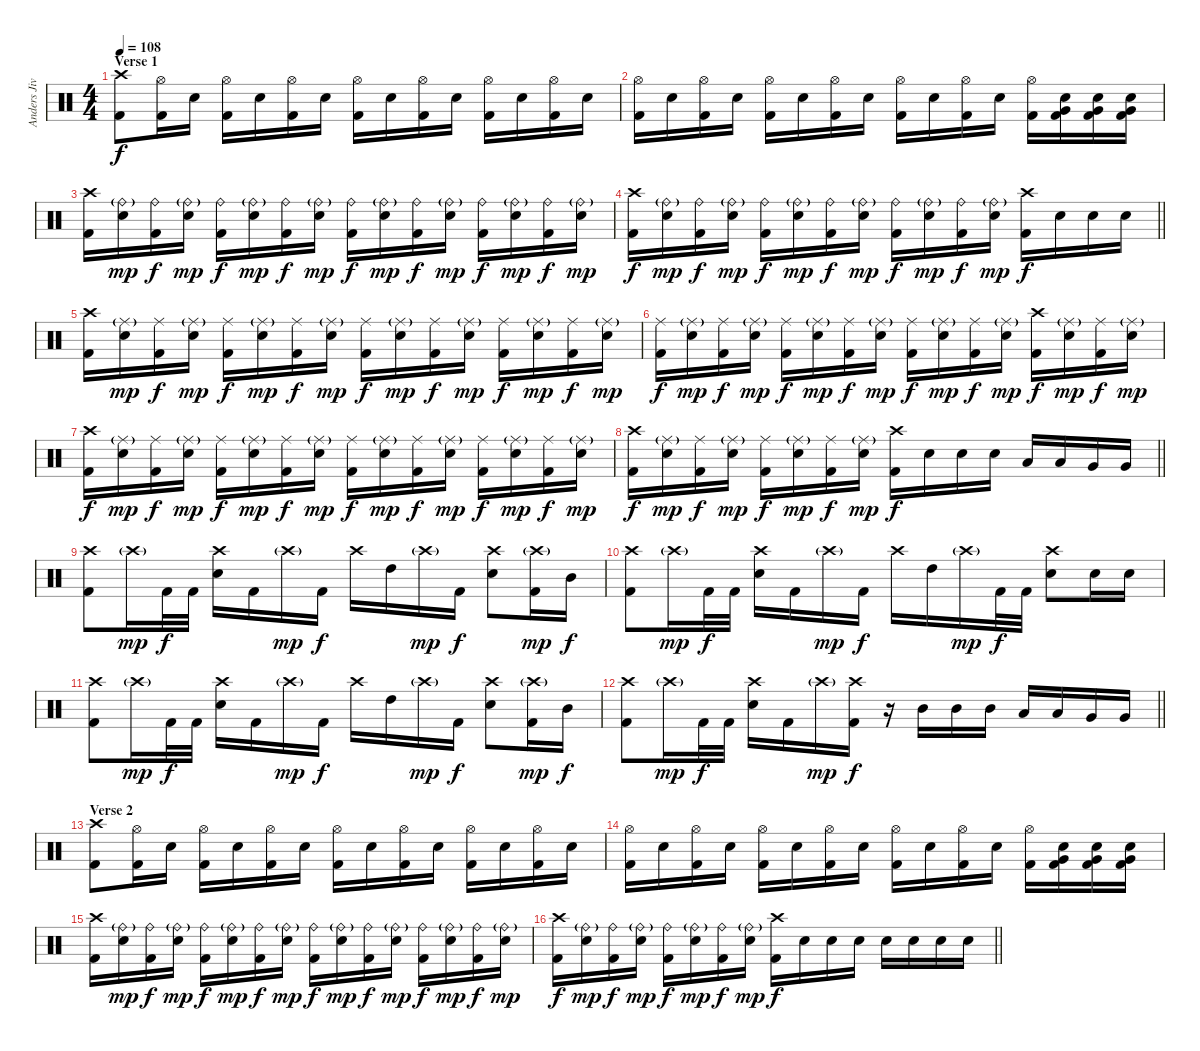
\track ("Anders Jivarp" "Anders Jiv") {instrument percussion}
\staff {score}
\articulation defaults
\ts (4 4)
\section ("" "Verse 1")
\tempo 108
\clef neutral
\ks c
("Crash high (hit)" "Kick (hit) 2").8{dy f} ("Hi-Hat (open)" "Kick (hit) 2").16 "Snare (hit) 2".16 ("Hi-Hat (open)" "Kick (hit) 2").16 "Snare (hit) 2".16 ("Hi-Hat (open)" "Kick (hit) 2").16 "Snare (hit) 2".16 ("Hi-Hat (open)" "Kick (hit) 2").16 "Snare (hit) 2".16 ("Hi-Hat (open)" "Kick (hit) 2").16 "Snare (hit) 2".16 ("Hi-Hat (open)" "Kick (hit) 2").16 "Snare (hit) 2".16 ("Hi-Hat (open)" "Kick (hit) 2").16 "Snare (hit) 2".16 |
("Hi-Hat (open)" "Kick (hit) 2").16 "Snare (hit) 2".16 ("Hi-Hat (open)" "Kick (hit) 2").16 "Snare (hit) 2".16 ("Hi-Hat (open)" "Kick (hit) 2").16 "Snare (hit) 2".16 ("Hi-Hat (open)" "Kick (hit) 2").16 "Snare (hit) 2".16 ("Hi-Hat (open)" "Kick (hit) 2").16 "Snare (hit) 2".16 ("Hi-Hat (open)" "Kick (hit) 2").16 "Snare (hit) 2".16 ("Hi-Hat (open)" "Kick (hit) 2").16 ("Snare (hit) 2" "Very Low Tom (hit)" "Kick (hit) 2").16 ("Snare (hit) 2" "Very Low Tom (hit)" "Kick (hit) 2").16 ("Snare (hit) 2" "Very Low Tom (hit)" "Kick (hit) 2").16 |
("Crash high (hit)" "Kick (hit) 2").16 ("Ride (bell)"{g} "Snare (hit) 2").16{dy mp} ("Ride (bell)" "Kick (hit) 2").16{dy f} ("Ride (bell)"{g} "Snare (hit) 2").16{dy mp} ("Ride (bell)" "Kick (hit) 2").16{dy f} ("Ride (bell)"{g} "Snare (hit) 2").16{dy mp} ("Ride (bell)" "Kick (hit) 2").16{dy f} ("Ride (bell)"{g} "Snare (hit) 2").16{dy mp} ("Ride (bell)" "Kick (hit) 2").16{dy f} ("Ride (bell)"{g} "Snare (hit) 2").16{dy mp} ("Ride (bell)" "Kick (hit) 2").16{dy f} ("Ride (bell)"{g} "Snare (hit) 2").16{dy mp} ("Ride (bell)" "Kick (hit) 2").16{dy f} ("Ride (bell)"{g} "Snare (hit) 2").16{dy mp} ("Ride (bell)" "Kick (hit) 2").16{dy f} ("Ride (bell)"{g} "Snare (hit) 2").16{dy mp} |
\barLineRight lightlight
("Crash high (hit)" "Kick (hit) 2").16{dy f} ("Ride (bell)"{g} "Snare (hit) 2").16{dy mp} ("Ride (bell)" "Kick (hit) 2").16{dy f} ("Ride (bell)"{g} "Snare (hit) 2").16{dy mp} ("Ride (bell)" "Kick (hit) 2").16{dy f} ("Ride (bell)"{g} "Snare (hit) 2").16{dy mp} ("Ride (bell)" "Kick (hit) 2").16{dy f} ("Ride (bell)"{g} "Snare (hit) 2").16{dy mp} ("Ride (bell)" "Kick (hit) 2").16{dy f} ("Ride (bell)"{g} "Snare (hit) 2").16{dy mp} ("Ride (bell)" "Kick (hit) 2").16{dy f} ("Ride (bell)"{g} "Snare (hit) 2").16{dy mp} ("Crash high (hit)" "Kick (hit) 2").16{dy f} "Snare (hit) 2".16 "Snare (hit) 2".16 "Snare (hit) 2".16 |
\section ("" "")
("Crash high (hit)" "Kick (hit) 2").16 ("Ride (middle)"{g} "Snare (hit) 2").16{dy mp} ("Ride (middle)" "Kick (hit) 2").16{dy f} ("Ride (middle)"{g} "Snare (hit) 2").16{dy mp} ("Ride (middle)" "Kick (hit) 2").16{dy f} ("Ride (middle)"{g} "Snare (hit) 2").16{dy mp} ("Ride (middle)" "Kick (hit) 2").16{dy f} ("Ride (middle)"{g} "Snare (hit) 2").16{dy mp} ("Ride (middle)" "Kick (hit) 2").16{dy f} ("Ride (middle)"{g} "Snare (hit) 2").16{dy mp} ("Ride (middle)" "Kick (hit) 2").16{dy f} ("Ride (middle)"{g} "Snare (hit) 2").16{dy mp} ("Ride (middle)" "Kick (hit) 2").16{dy f} ("Ride (middle)"{g} "Snare (hit) 2").16{dy mp} ("Ride (middle)" "Kick (hit) 2").16{dy f} ("Ride (middle)"{g} "Snare (hit) 2").16{dy mp} |
("Ride (middle)" "Kick (hit) 2").16{dy f} ("Ride (middle)"{g} "Snare (hit) 2").16{dy mp} ("Ride (middle)" "Kick (hit) 2").16{dy f} ("Ride (middle)"{g} "Snare (hit) 2").16{dy mp} ("Ride (middle)" "Kick (hit) 2").16{dy f} ("Ride (middle)"{g} "Snare (hit) 2").16{dy mp} ("Ride (middle)" "Kick (hit) 2").16{dy f} ("Ride (middle)"{g} "Snare (hit) 2").16{dy mp} ("Ride (middle)" "Kick (hit) 2").16{dy f} ("Ride (middle)"{g} "Snare (hit) 2").16{dy mp} ("Ride (middle)" "Kick (hit) 2").16{dy f} ("Ride (middle)"{g} "Snare (hit) 2").16{dy mp} ("Crash high (hit)" "Kick (hit) 2").16{dy f} ("Ride (middle)"{g} "Snare (hit) 2").16{dy mp} ("Ride (middle)" "Kick (hit) 2").16{dy f} ("Ride (middle)"{g} "Snare (hit) 2").16{dy mp} |
("Crash high (hit)" "Kick (hit) 2").16{dy f} ("Ride (middle)"{g} "Snare (hit) 2").16{dy mp} ("Ride (middle)" "Kick (hit) 2").16{dy f} ("Ride (middle)"{g} "Snare (hit) 2").16{dy mp} ("Ride (middle)" "Kick (hit) 2").16{dy f} ("Ride (middle)"{g} "Snare (hit) 2").16{dy mp} ("Ride (middle)" "Kick (hit) 2").16{dy f} ("Ride (middle)"{g} "Snare (hit) 2").16{dy mp} ("Ride (middle)" "Kick (hit) 2").16{dy f} ("Ride (middle)"{g} "Snare (hit) 2").16{dy mp} ("Ride (middle)" "Kick (hit) 2").16{dy f} ("Ride (middle)"{g} "Snare (hit) 2").16{dy mp} ("Ride (middle)" "Kick (hit) 2").16{dy f} ("Ride (middle)"{g} "Snare (hit) 2").16{dy mp} ("Ride (middle)" "Kick (hit) 2").16{dy f} ("Ride (middle)"{g} "Snare (hit) 2").16{dy mp} |
\barLineRight lightlight
("Crash high (hit)" "Kick (hit) 2").16{dy f} ("Ride (middle)"{g} "Snare (hit) 2").16{dy mp} ("Ride (middle)" "Kick (hit) 2").16{dy f} ("Ride (middle)"{g} "Snare (hit) 2").16{dy mp} ("Ride (middle)" "Kick (hit) 2").16{dy f} ("Ride (middle)"{g} "Snare (hit) 2").16{dy mp} ("Ride (middle)" "Kick (hit) 2").16{dy f} ("Ride (middle)"{g} "Snare (hit) 2").16{dy mp} ("Crash high (hit)" "Kick (hit) 2").16{dy f} "Snare (hit) 2".16 "Snare (hit) 2".16 "Snare (hit) 2".16 "Low Tom (hit)".16 "Low Tom (hit)".16 "Very Low Tom (hit)".16 "Very Low Tom (hit)".16 |
\section ("" "")
("Crash high (hit)" "Kick (hit) 2").8 "Crash high (hit)"{g}.16{dy mp} "Kick (hit) 2".32{dy f} "Kick (hit) 2".32 ("Crash high (hit)" "Snare (hit) 2").16 "Kick (hit) 2".16 "Crash high (hit)"{g}.16{dy mp} "Kick (hit) 2".16{dy f} "Crash high (hit)".16 "High Tom (hit)".16 "Crash high (hit)"{g}.16{dy mp} "Kick (hit) 2".16{dy f} ("Crash high (hit)" "Snare (hit) 2").8 ("Crash high (hit)"{g} "Kick (hit) 2").16{dy mp} "Mid Tom (hit)".16{dy f} |
("Crash high (hit)" "Kick (hit) 2").8 "Crash high (hit)"{g}.16{dy mp} "Kick (hit) 2".32{dy f} "Kick (hit) 2".32 ("Crash high (hit)" "Snare (hit) 2").16 "Kick (hit) 2".16 "Crash high (hit)"{g}.16{dy mp} "Kick (hit) 2".16{dy f} "Crash high (hit)".16 "High Tom (hit)".16 "Crash high (hit)"{g}.16{dy mp} "Kick (hit) 2".32{dy f} "Kick (hit) 2".32 ("Crash high (hit)" "Snare (hit) 2").8 "Snare (hit) 2".16 "Snare (hit) 2".16 |
("Crash high (hit)" "Kick (hit) 2").8 "Crash high (hit)"{g}.16{dy mp} "Kick (hit) 2".32{dy f} "Kick (hit) 2".32 ("Crash high (hit)" "Snare (hit) 2").16 "Kick (hit) 2".16 "Crash high (hit)"{g}.16{dy mp} "Kick (hit) 2".16{dy f} "Crash high (hit)".16 "High Tom (hit)".16 "Crash high (hit)"{g}.16{dy mp} "Kick (hit) 2".16{dy f} ("Crash high (hit)" "Snare (hit) 2").8 ("Crash high (hit)"{g} "Kick (hit) 2").16{dy mp} "Mid Tom (hit)".16{dy f} |
\barLineRight lightlight
("Crash high (hit)" "Kick (hit) 2").8 "Crash high (hit)"{g}.16{dy mp} "Kick (hit) 2".32{dy f} "Kick (hit) 2".32 ("Crash high (hit)" "Snare (hit) 2").16 "Kick (hit) 2".16 "Crash high (hit)"{g}.16{dy mp} ("Crash high (hit)" "Kick (hit) 2").16{dy f} r.16 "Mid Tom (hit)".16 "Mid Tom (hit)".16 "Mid Tom (hit)".16 "Low Tom (hit)".16 "Low Tom (hit)".16 "Very Low Tom (hit)".16 "Very Low Tom (hit)".16 |
\section ("" "Verse 2")
("Crash high (hit)" "Kick (hit) 2").8 ("Hi-Hat (open)" "Kick (hit) 2").16 "Snare (hit) 2".16 ("Hi-Hat (open)" "Kick (hit) 2").16 "Snare (hit) 2".16 ("Hi-Hat (open)" "Kick (hit) 2").16 "Snare (hit) 2".16 ("Hi-Hat (open)" "Kick (hit) 2").16 "Snare (hit) 2".16 ("Hi-Hat (open)" "Kick (hit) 2").16 "Snare (hit) 2".16 ("Hi-Hat (open)" "Kick (hit) 2").16 "Snare (hit) 2".16 ("Hi-Hat (open)" "Kick (hit) 2").16 "Snare (hit) 2".16 |
("Hi-Hat (open)" "Kick (hit) 2").16 "Snare (hit) 2".16 ("Hi-Hat (open)" "Kick (hit) 2").16 "Snare (hit) 2".16 ("Hi-Hat (open)" "Kick (hit) 2").16 "Snare (hit) 2".16 ("Hi-Hat (open)" "Kick (hit) 2").16 "Snare (hit) 2".16 ("Hi-Hat (open)" "Kick (hit) 2").16 "Snare (hit) 2".16 ("Hi-Hat (open)" "Kick (hit) 2").16 "Snare (hit) 2".16 ("Hi-Hat (open)" "Kick (hit) 2").16 ("Snare (hit) 2" "Very Low Tom (hit)" "Kick (hit) 2").16 ("Snare (hit) 2" "Very Low Tom (hit)" "Kick (hit) 2").16 ("Snare (hit) 2" "Very Low Tom (hit)" "Kick (hit) 2").16 |
("Crash high (hit)" "Kick (hit) 2").16 ("Ride (bell)"{g} "Snare (hit) 2").16{dy mp} ("Ride (bell)" "Kick (hit) 2").16{dy f} ("Ride (bell)"{g} "Snare (hit) 2").16{dy mp} ("Ride (bell)" "Kick (hit) 2").16{dy f} ("Ride (bell)"{g} "Snare (hit) 2").16{dy mp} ("Ride (bell)" "Kick (hit) 2").16{dy f} ("Ride (bell)"{g} "Snare (hit) 2").16{dy mp} ("Ride (bell)" "Kick (hit) 2").16{dy f} ("Ride (bell)"{g} "Snare (hit) 2").16{dy mp} ("Ride (bell)" "Kick (hit) 2").16{dy f} ("Ride (bell)"{g} "Snare (hit) 2").16{dy mp} ("Ride (bell)" "Kick (hit) 2").16{dy f} ("Ride (bell)"{g} "Snare (hit) 2").16{dy mp} ("Ride (bell)" "Kick (hit) 2").16{dy f} ("Ride (bell)"{g} "Snare (hit) 2").16{dy mp} |
\barLineRight lightlight
("Crash high (hit)" "Kick (hit) 2").16{dy f} ("Ride (bell)"{g} "Snare (hit) 2").16{dy mp} ("Ride (bell)" "Kick (hit) 2").16{dy f} ("Ride (bell)"{g} "Snare (hit) 2").16{dy mp} ("Ride (bell)" "Kick (hit) 2").16{dy f} ("Ride (bell)"{g} "Snare (hit) 2").16{dy mp} ("Ride (bell)" "Kick (hit) 2").16{dy f} ("Ride (bell)"{g} "Snare (hit) 2").16{dy mp} ("Crash high (hit)" "Kick (hit) 2").16{dy f} "Snare (hit) 2".16 "Snare (hit) 2".16 "Snare (hit) 2".16 "Snare (hit) 2".16 "Snare (hit) 2".16 "Snare (hit) 2".16 "Snare (hit) 2".16
